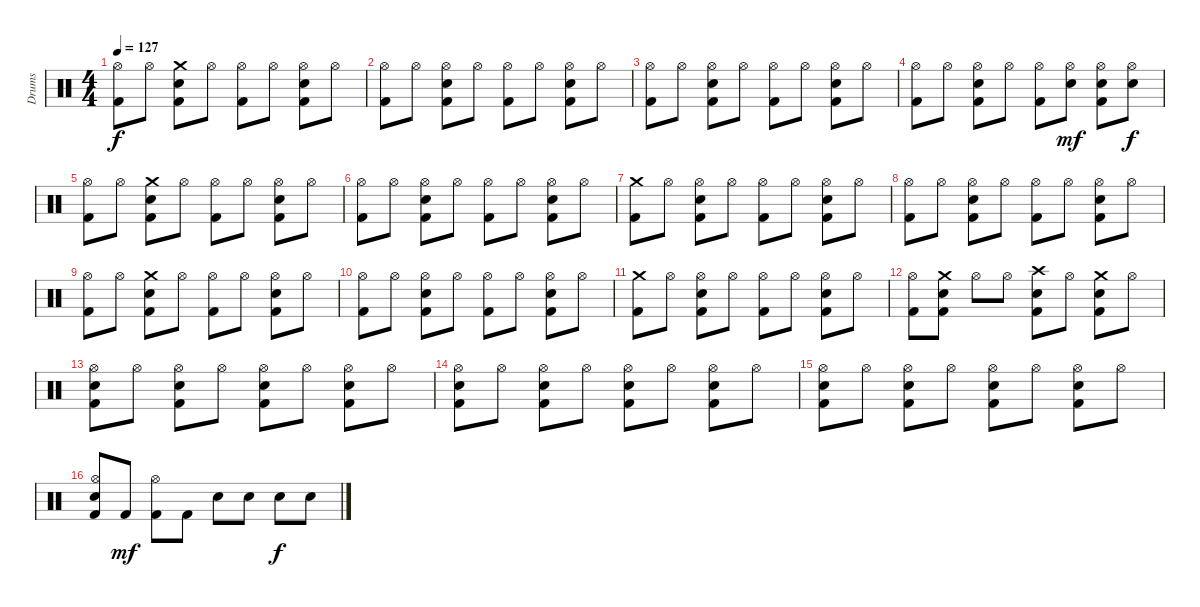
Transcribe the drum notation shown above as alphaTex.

\track ("Drums" "Drums") {instrument percussion}
\staff {score}
\articulation defaults
\ts (4 4)
\tempo 127
\clef neutral
\ks c
("Kick (hit) 2" "Hi-Hat (open)").8{dy f} "Hi-Hat (open)".8 ("Kick (hit) 2" "Crash medium (hit)" "Snare (hit) 2").8 "Hi-Hat (open)".8 ("Kick (hit) 2" "Hi-Hat (open)").8 "Hi-Hat (open)".8 ("Kick (hit) 2" "Hi-Hat (open)" "Snare (hit) 2").8 "Hi-Hat (open)".8 |
("Kick (hit) 2" "Hi-Hat (open)").8 "Hi-Hat (open)".8 ("Kick (hit) 2" "Hi-Hat (open)" "Snare (hit) 2").8 "Hi-Hat (open)".8 ("Kick (hit) 2" "Hi-Hat (open)").8 "Hi-Hat (open)".8 ("Kick (hit) 2" "Hi-Hat (open)" "Snare (hit) 2").8 "Hi-Hat (open)".8 |
("Kick (hit) 2" "Hi-Hat (open)").8 "Hi-Hat (open)".8 ("Kick (hit) 2" "Hi-Hat (open)" "Snare (hit) 2").8 "Hi-Hat (open)".8 ("Kick (hit) 2" "Hi-Hat (open)").8 "Hi-Hat (open)".8 ("Kick (hit) 2" "Hi-Hat (open)" "Snare (hit) 2").8 "Hi-Hat (open)".8 |
("Kick (hit) 2" "Hi-Hat (open)").8 "Hi-Hat (open)".8 ("Kick (hit) 2" "Hi-Hat (open)" "Snare (hit) 2").8 "Hi-Hat (open)".8 ("Kick (hit) 2" "Hi-Hat (open)").8 ("Hi-Hat (open)" "Snare (hit) 2").8{dy mf} ("Kick (hit) 2" "Hi-Hat (open)" "Snare (hit) 2").8 ("Hi-Hat (open)" "Snare (hit) 2").8{dy f} |
("Kick (hit) 2" "Hi-Hat (open)").8 "Hi-Hat (open)".8 ("Kick (hit) 2" "Crash medium (hit)" "Snare (hit) 2").8 "Hi-Hat (open)".8 ("Kick (hit) 2" "Hi-Hat (open)").8 "Hi-Hat (open)".8 ("Kick (hit) 2" "Hi-Hat (open)" "Snare (hit) 2").8 "Hi-Hat (open)".8 |
("Kick (hit) 2" "Hi-Hat (open)").8 "Hi-Hat (open)".8 ("Kick (hit) 2" "Hi-Hat (open)" "Snare (hit) 2").8 "Hi-Hat (open)".8 ("Kick (hit) 2" "Hi-Hat (open)").8 "Hi-Hat (open)".8 ("Kick (hit) 2" "Hi-Hat (open)" "Snare (hit) 2").8 "Hi-Hat (open)".8 |
("Kick (hit) 2" "Crash medium (hit)").8 "Hi-Hat (open)".8 ("Kick (hit) 2" "Hi-Hat (open)" "Snare (hit) 2").8 "Hi-Hat (open)".8 ("Kick (hit) 2" "Hi-Hat (open)").8 "Hi-Hat (open)".8 ("Kick (hit) 2" "Hi-Hat (open)" "Snare (hit) 2").8 "Hi-Hat (open)".8 |
("Kick (hit) 2" "Hi-Hat (open)").8 "Hi-Hat (open)".8 ("Kick (hit) 2" "Hi-Hat (open)" "Snare (hit) 2").8 "Hi-Hat (open)".8 ("Kick (hit) 2" "Hi-Hat (open)").8 "Hi-Hat (open)".8 ("Kick (hit) 2" "Hi-Hat (open)" "Snare (hit) 2").8 "Hi-Hat (open)".8 |
("Kick (hit) 2" "Hi-Hat (open)").8 "Hi-Hat (open)".8 ("Kick (hit) 2" "Crash medium (hit)" "Snare (hit) 2").8 "Hi-Hat (open)".8 ("Kick (hit) 2" "Hi-Hat (open)").8 "Hi-Hat (open)".8 ("Kick (hit) 2" "Hi-Hat (open)" "Snare (hit) 2").8 "Hi-Hat (open)".8 |
("Kick (hit) 2" "Hi-Hat (open)").8 "Hi-Hat (open)".8 ("Kick (hit) 2" "Hi-Hat (open)" "Snare (hit) 2").8 "Hi-Hat (open)".8 ("Kick (hit) 2" "Hi-Hat (open)").8 "Hi-Hat (open)".8 ("Kick (hit) 2" "Hi-Hat (open)" "Snare (hit) 2").8 "Hi-Hat (open)".8 |
("Kick (hit) 2" "Crash medium (hit)").8 "Hi-Hat (open)".8 ("Kick (hit) 2" "Hi-Hat (open)" "Snare (hit) 2").8 "Hi-Hat (open)".8 ("Kick (hit) 2" "Hi-Hat (open)").8 "Hi-Hat (open)".8 ("Kick (hit) 2" "Hi-Hat (open)" "Snare (hit) 2").8 "Hi-Hat (open)".8 |
("Kick (hit) 2" "Hi-Hat (open)").8 ("Kick (hit) 2" "Crash medium (hit)" "Snare (hit) 2").8 "Hi-Hat (open)".8 "Hi-Hat (open)".8 ("Kick (hit) 2" "Crash high (hit)" "Snare (hit) 2").8 "Hi-Hat (open)".8 ("Kick (hit) 2" "Crash medium (hit)" "Snare (hit) 2").8 "Hi-Hat (open)".8 |
("Kick (hit) 2" "Hi-Hat (open)" "Snare (hit) 2").8 "Hi-Hat (open)".8 ("Kick (hit) 2" "Hi-Hat (open)" "Snare (hit) 2").8 "Hi-Hat (open)".8 ("Kick (hit) 2" "Hi-Hat (open)" "Snare (hit) 2").8 "Hi-Hat (open)".8 ("Kick (hit) 2" "Hi-Hat (open)" "Snare (hit) 2").8 "Hi-Hat (open)".8 |
("Kick (hit) 2" "Hi-Hat (open)" "Snare (hit) 2").8 "Hi-Hat (open)".8 ("Kick (hit) 2" "Hi-Hat (open)" "Snare (hit) 2").8 "Hi-Hat (open)".8 ("Kick (hit) 2" "Hi-Hat (open)" "Snare (hit) 2").8 "Hi-Hat (open)".8 ("Kick (hit) 2" "Hi-Hat (open)" "Snare (hit) 2").8 "Hi-Hat (open)".8 |
("Kick (hit) 2" "Hi-Hat (open)" "Snare (hit) 2").8 "Hi-Hat (open)".8 ("Kick (hit) 2" "Hi-Hat (open)" "Snare (hit) 2").8 "Hi-Hat (open)".8 ("Kick (hit) 2" "Hi-Hat (open)" "Snare (hit) 2").8 "Hi-Hat (open)".8 ("Kick (hit) 2" "Hi-Hat (open)" "Snare (hit) 2").8 "Hi-Hat (open)".8 |
("Kick (hit) 2" "Hi-Hat (open)" "Snare (hit) 2").8 "Kick (hit) 2".8{dy mf} ("Kick (hit) 2" "Hi-Hat (open)").8 "Kick (hit) 2".8 "Snare (hit) 2".8 "Snare (hit) 2".8 "Snare (hit) 2".8{dy f} "Snare (hit) 2".8
